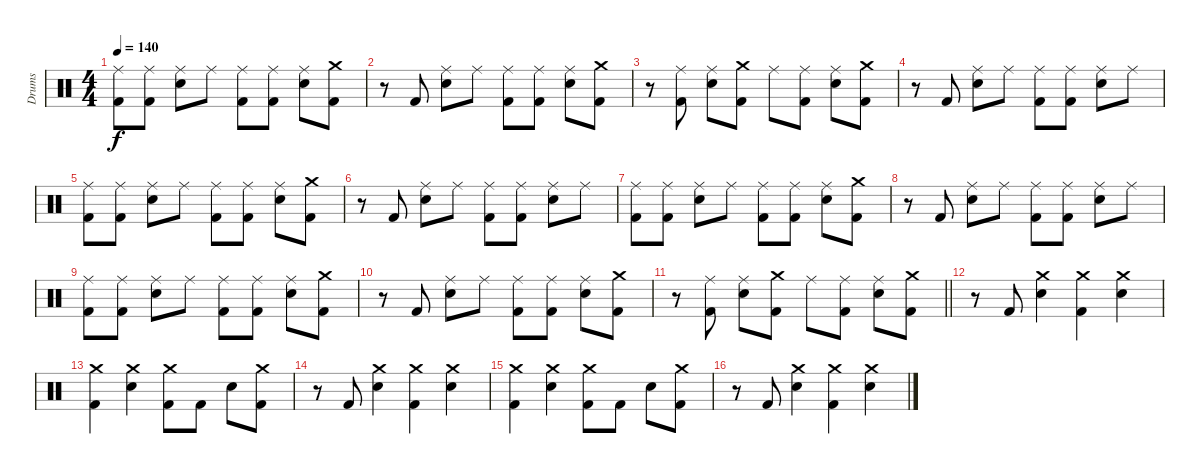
\track ("Drums" "Drums") {instrument percussion}
\staff {score}
\articulation defaults
\ts (4 4)
\tempo 140
\clef neutral
\ks c
("Ride (middle)" "Kick (hit) 2").8{dy f} ("Ride (middle)" "Kick (hit) 2").8 ("Ride (middle)" "Snare (hit) 2").8 "Ride (middle)".8 ("Ride (middle)" "Kick (hit) 2").8 ("Ride (middle)" "Kick (hit) 2").8 ("Ride (middle)" "Snare (hit) 2").8 ("Crash medium (hit)" "Kick (hit) 2").8 |
r.8 "Kick (hit) 2".8 ("Ride (middle)" "Snare (hit) 2").8 "Ride (middle)".8 ("Ride (middle)" "Kick (hit) 2").8 ("Ride (middle)" "Kick (hit) 2").8 ("Ride (middle)" "Snare (hit) 2").8 ("Crash medium (hit)" "Kick (hit) 2").8 |
r.8 ("Ride (middle)" "Kick (hit) 2").8 ("Ride (middle)" "Snare (hit) 2").8 ("Crash medium (hit)" "Kick (hit) 2").8 "Ride (middle)".8 ("Ride (middle)" "Kick (hit) 2").8 ("Ride (middle)" "Snare (hit) 2").8 ("Crash medium (hit)" "Kick (hit) 2").8 |
r.8 "Kick (hit) 2".8 ("Ride (middle)" "Snare (hit) 2").8 "Ride (middle)".8 ("Ride (middle)" "Kick (hit) 2").8 ("Ride (middle)" "Kick (hit) 2").8 ("Ride (middle)" "Snare (hit) 2").8 "Ride (middle)".8 |
("Ride (middle)" "Kick (hit) 2").8 ("Ride (middle)" "Kick (hit) 2").8 ("Ride (middle)" "Snare (hit) 2").8 "Ride (middle)".8 ("Ride (middle)" "Kick (hit) 2").8 ("Ride (middle)" "Kick (hit) 2").8 ("Ride (middle)" "Snare (hit) 2").8 ("Crash medium (hit)" "Kick (hit) 2").8 |
r.8 "Kick (hit) 2".8 ("Ride (middle)" "Snare (hit) 2").8 "Ride (middle)".8 ("Ride (middle)" "Kick (hit) 2").8 ("Ride (middle)" "Kick (hit) 2").8 ("Ride (middle)" "Snare (hit) 2").8 "Ride (middle)".8 |
("Ride (middle)" "Kick (hit) 2").8 ("Ride (middle)" "Kick (hit) 2").8 ("Ride (middle)" "Snare (hit) 2").8 "Ride (middle)".8 ("Ride (middle)" "Kick (hit) 2").8 ("Ride (middle)" "Kick (hit) 2").8 ("Ride (middle)" "Snare (hit) 2").8 ("Crash medium (hit)" "Kick (hit) 2").8 |
r.8 "Kick (hit) 2".8 ("Ride (middle)" "Snare (hit) 2").8 "Ride (middle)".8 ("Ride (middle)" "Kick (hit) 2").8 ("Ride (middle)" "Kick (hit) 2").8 ("Ride (middle)" "Snare (hit) 2").8 "Ride (middle)".8 |
("Ride (middle)" "Kick (hit) 2").8 ("Ride (middle)" "Kick (hit) 2").8 ("Ride (middle)" "Snare (hit) 2").8 "Ride (middle)".8 ("Ride (middle)" "Kick (hit) 2").8 ("Ride (middle)" "Kick (hit) 2").8 ("Ride (middle)" "Snare (hit) 2").8 ("Crash medium (hit)" "Kick (hit) 2").8 |
r.8 "Kick (hit) 2".8 ("Ride (middle)" "Snare (hit) 2").8 "Ride (middle)".8 ("Ride (middle)" "Kick (hit) 2").8 ("Ride (middle)" "Kick (hit) 2").8 ("Ride (middle)" "Snare (hit) 2").8 ("Crash medium (hit)" "Kick (hit) 2").8 |
\barLineRight lightlight
r.8 ("Ride (middle)" "Kick (hit) 2").8 ("Ride (middle)" "Snare (hit) 2").8 ("Crash medium (hit)" "Kick (hit) 2").8 "Ride (middle)".8 ("Ride (middle)" "Kick (hit) 2").8 ("Ride (middle)" "Snare (hit) 2").8 ("Crash medium (hit)" "Kick (hit) 2").8 |
\section ("" "")
r.8 "Kick (hit) 2".8 ("Crash medium (hit)" "Snare (hit) 2").4 ("Crash medium (hit)" "Kick (hit) 2").4 ("Crash medium (hit)" "Snare (hit) 2").4 |
("Crash medium (hit)" "Kick (hit) 2").4 ("Crash medium (hit)" "Snare (hit) 2").4 ("Crash medium (hit)" "Kick (hit) 2").8 "Kick (hit) 2".8 "Snare (hit) 2".8 ("Crash medium (hit)" "Kick (hit) 2").8 |
r.8 "Kick (hit) 2".8 ("Crash medium (hit)" "Snare (hit) 2").4 ("Crash medium (hit)" "Kick (hit) 2").4 ("Crash medium (hit)" "Snare (hit) 2").4 |
("Crash medium (hit)" "Kick (hit) 2").4 ("Crash medium (hit)" "Snare (hit) 2").4 ("Crash medium (hit)" "Kick (hit) 2").8 "Kick (hit) 2".8 "Snare (hit) 2".8 ("Crash medium (hit)" "Kick (hit) 2").8 |
r.8 "Kick (hit) 2".8 ("Crash medium (hit)" "Snare (hit) 2").4 ("Crash medium (hit)" "Kick (hit) 2").4 ("Crash medium (hit)" "Snare (hit) 2").4
